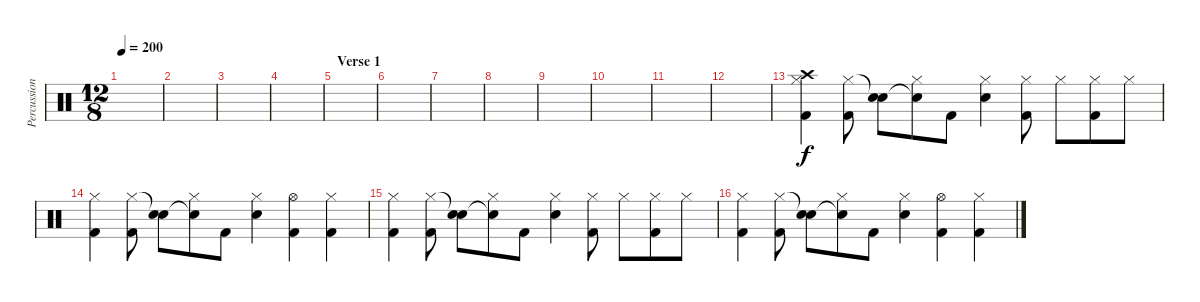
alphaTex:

\track ("Percussion" "Percussion") {instrument percussion}
\staff {score}
\articulation defaults
\ts (12 8)
\tempo 200
\clef neutral
\ks c
|
|
|
|
\section ("" "Verse 1")
|
|
|
|
|
|
|
|
("Crash high (hit)" "Hi-Hat (closed)" "Kick (hit) 2").4 ("Hi-Hat (closed)" "Kick (hit) 2").8 ("Snare (hit)"{t} "Electric Snare (hit)").8 ("Hi-Hat (closed)" "Electric Snare (hit)"{t}).8 "Kick (hit) 2".8 ("Hi-Hat (closed)" "Electric Snare (hit)").4 ("Hi-Hat (closed)" "Kick (hit) 2").8 "Hi-Hat (closed)".8 ("Hi-Hat (closed)" "Kick (hit) 2").8 "Hi-Hat (closed)".8 |
("Hi-Hat (closed)" "Kick (hit) 2").4 ("Hi-Hat (closed)" "Kick (hit) 2").8 ("Snare (hit)"{t} "Electric Snare (hit)").8 ("Hi-Hat (closed)" "Electric Snare (hit)"{t}).8 "Kick (hit) 2".8 ("Hi-Hat (closed)" "Electric Snare (hit)").4 ("Hi-Hat (open)" "Kick (hit) 2").4 ("Hi-Hat (closed)" "Kick (hit) 2").4 |
("Hi-Hat (closed)" "Kick (hit) 2").4 ("Hi-Hat (closed)" "Kick (hit) 2").8 ("Snare (hit)"{t} "Electric Snare (hit)").8 ("Hi-Hat (closed)" "Electric Snare (hit)"{t}).8 "Kick (hit) 2".8 ("Hi-Hat (closed)" "Electric Snare (hit)").4 ("Hi-Hat (closed)" "Kick (hit) 2").8 "Hi-Hat (closed)".8 ("Hi-Hat (closed)" "Kick (hit) 2").8 "Hi-Hat (closed)".8 |
("Hi-Hat (closed)" "Kick (hit) 2").4 ("Hi-Hat (closed)" "Kick (hit) 2").8 ("Snare (hit)"{t} "Electric Snare (hit)").8 ("Hi-Hat (closed)" "Electric Snare (hit)"{t}).8 "Kick (hit) 2".8 ("Hi-Hat (closed)" "Electric Snare (hit)").4 ("Hi-Hat (open)" "Kick (hit) 2").4 ("Hi-Hat (closed)" "Kick (hit) 2").4
